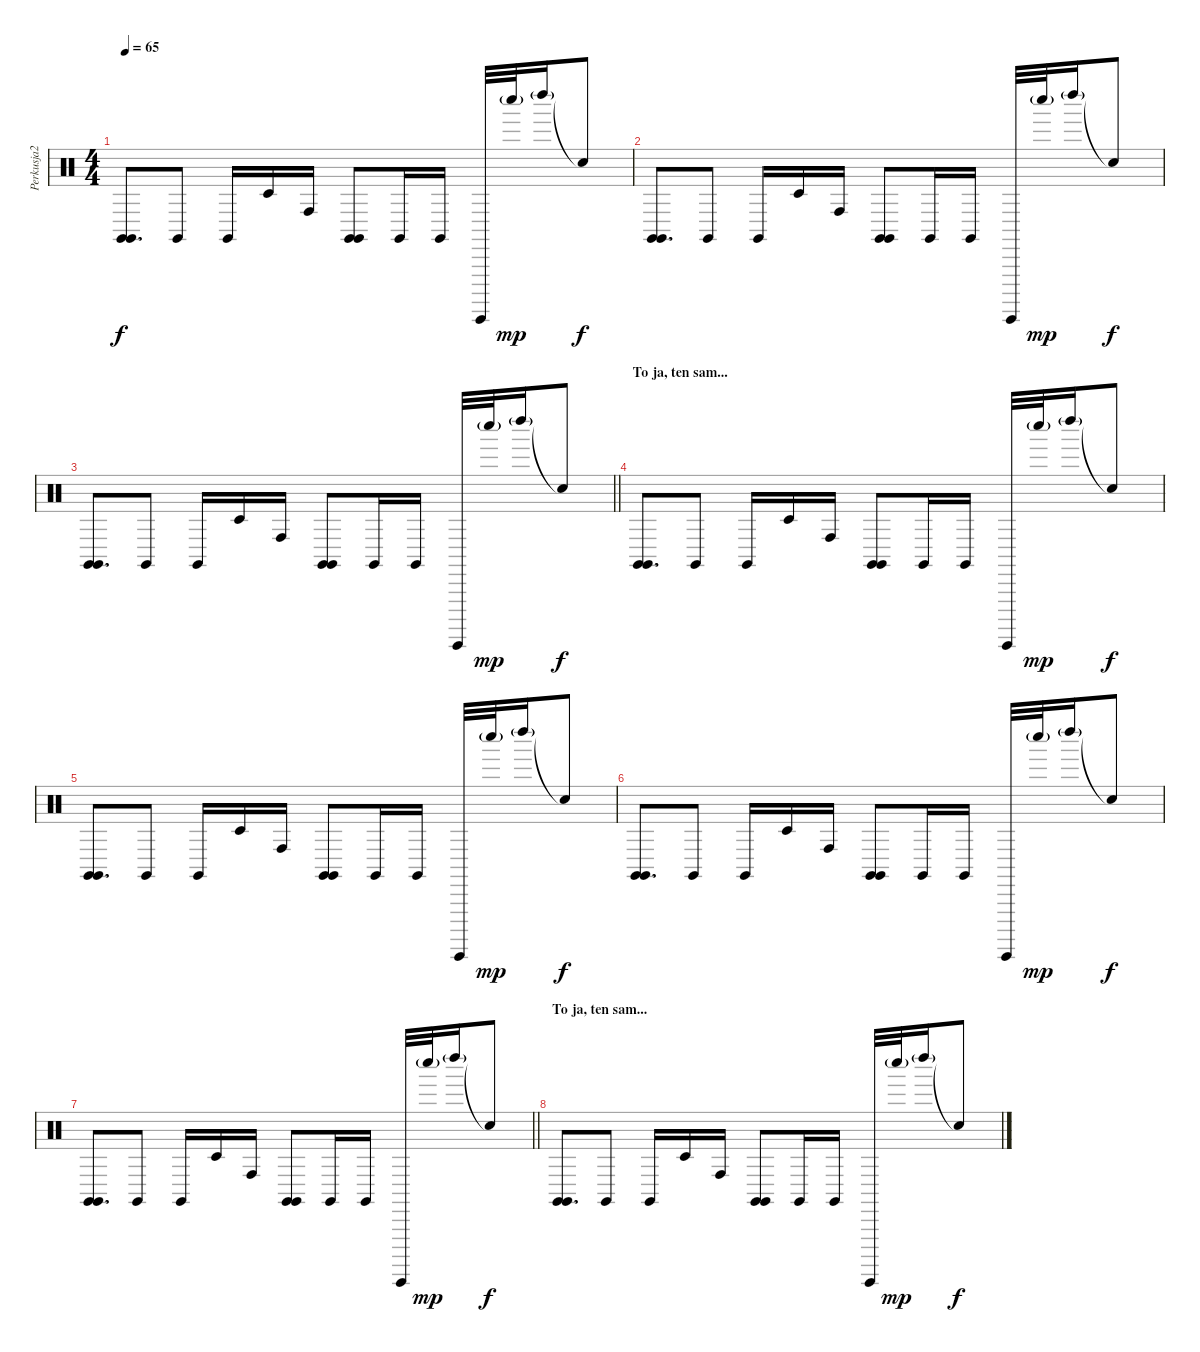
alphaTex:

\track ("Perkusja2" "Perkusja2") {instrument percussion}
\staff {score}
\articulation defaults
\ts (4 4)
\tempo 65
\clef neutral
\ks c
("Claves (hit)" "Claves (hit)").8{d dy f} "Claves (hit)".8 "Claves (hit)".16 "Timbale low (hit)".16 "Conga high (hit)".16 ("Claves (hit)" "Claves (hit)").8 "Claves (hit)".16 "Claves (hit)".16 "Guiro (hit)".32 "Whistle low (hit)"{g}.32{dy mp} "Left Maraca (hit)"{g}.16 "Snare (hit)"{t}.8{dy f} |
("Claves (hit)" "Claves (hit)").8{d} "Claves (hit)".8 "Claves (hit)".16 "Timbale low (hit)".16 "Conga high (hit)".16 ("Claves (hit)" "Claves (hit)").8 "Claves (hit)".16 "Claves (hit)".16 "Guiro (hit)".32 "Whistle low (hit)"{g}.32{dy mp} "Left Maraca (hit)"{g}.16 "Snare (hit)"{t}.8{dy f} |
\barLineRight lightlight
("Claves (hit)" "Claves (hit)").8{d} "Claves (hit)".8 "Claves (hit)".16 "Timbale low (hit)".16 "Conga high (hit)".16 ("Claves (hit)" "Claves (hit)").8 "Claves (hit)".16 "Claves (hit)".16 "Guiro (hit)".32 "Whistle low (hit)"{g}.32{dy mp} "Left Maraca (hit)"{g}.16 "Snare (hit)"{t}.8{dy f} |
\section ("" "To ja, ten sam...")
("Claves (hit)" "Claves (hit)").8{d} "Claves (hit)".8 "Claves (hit)".16 "Timbale low (hit)".16 "Conga high (hit)".16 ("Claves (hit)" "Claves (hit)").8 "Claves (hit)".16 "Claves (hit)".16 "Guiro (hit)".32 "Whistle low (hit)"{g}.32{dy mp} "Left Maraca (hit)"{g}.16 "Snare (hit)"{t}.8{dy f} |
("Claves (hit)" "Claves (hit)").8{d} "Claves (hit)".8 "Claves (hit)".16 "Timbale low (hit)".16 "Conga high (hit)".16 ("Claves (hit)" "Claves (hit)").8 "Claves (hit)".16 "Claves (hit)".16 "Guiro (hit)".32 "Whistle low (hit)"{g}.32{dy mp} "Left Maraca (hit)"{g}.16 "Snare (hit)"{t}.8{dy f} |
("Claves (hit)" "Claves (hit)").8{d} "Claves (hit)".8 "Claves (hit)".16 "Timbale low (hit)".16 "Conga high (hit)".16 ("Claves (hit)" "Claves (hit)").8 "Claves (hit)".16 "Claves (hit)".16 "Guiro (hit)".32 "Whistle low (hit)"{g}.32{dy mp} "Left Maraca (hit)"{g}.16 "Snare (hit)"{t}.8{dy f} |
\barLineRight lightlight
("Claves (hit)" "Claves (hit)").8{d} "Claves (hit)".8 "Claves (hit)".16 "Timbale low (hit)".16 "Conga high (hit)".16 ("Claves (hit)" "Claves (hit)").8 "Claves (hit)".16 "Claves (hit)".16 "Guiro (hit)".32 "Whistle low (hit)"{g}.32{dy mp} "Left Maraca (hit)"{g}.16 "Snare (hit)"{t}.8{dy f} |
\section ("" "To ja, ten sam...")
("Claves (hit)" "Claves (hit)").8{d} "Claves (hit)".8 "Claves (hit)".16 "Timbale low (hit)".16 "Conga high (hit)".16 ("Claves (hit)" "Claves (hit)").8 "Claves (hit)".16 "Claves (hit)".16 "Guiro (hit)".32 "Whistle low (hit)"{g}.32{dy mp} "Left Maraca (hit)"{g}.16 "Snare (hit)"{t}.8{dy f}
